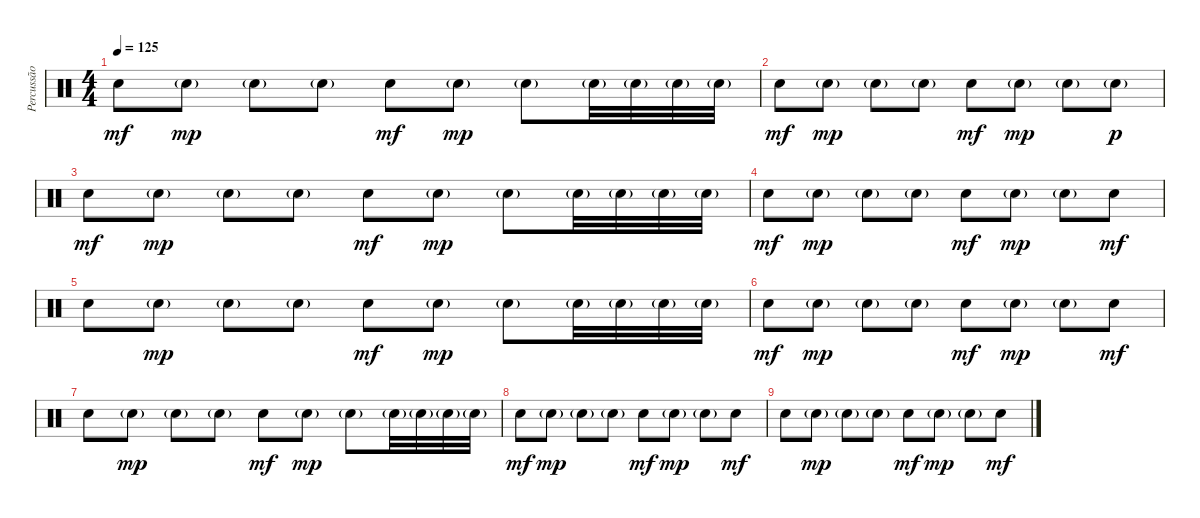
\track ("Percussão" "Percussão") {instrument percussion}
\staff {score}
\articulation defaults
\ts (4 4)
\tempo 125
\clef neutral
\ks c "Electric Snare (hit)".8{dy mf} "Electric Snare (hit)"{g}.8{dy mp} "Electric Snare (hit)"{g}.8 "Electric Snare (hit)"{g}.8 "Electric Snare (hit)".8{dy mf} "Electric Snare (hit)"{g}.8{dy mp} "Electric Snare (hit)"{g}.8 "Electric Snare (hit)"{g}.32 "Electric Snare (hit)"{g}.32 "Electric Snare (hit)"{g}.32 "Electric Snare (hit)"{g}.32
|
"Electric Snare (hit)".8{dy mf} "Electric Snare (hit)"{g}.8{dy mp} "Electric Snare (hit)"{g}.8 "Electric Snare (hit)"{g}.8 "Electric Snare (hit)".8{dy mf} "Electric Snare (hit)"{g}.8{dy mp} "Electric Snare (hit)"{g}.8 "Electric Snare (hit)"{g}.8{dy p} |
"Electric Snare (hit)".8{dy mf} "Electric Snare (hit)"{g}.8{dy mp} "Electric Snare (hit)"{g}.8 "Electric Snare (hit)"{g}.8 "Electric Snare (hit)".8{dy mf} "Electric Snare (hit)"{g}.8{dy mp} "Electric Snare (hit)"{g}.8 "Electric Snare (hit)"{g}.32 "Electric Snare (hit)"{g}.32 "Electric Snare (hit)"{g}.32 "Electric Snare (hit)"{g}.32 |
"Electric Snare (hit)".8{dy mf} "Electric Snare (hit)"{g}.8{dy mp} "Electric Snare (hit)"{g}.8 "Electric Snare (hit)"{g}.8 "Electric Snare (hit)".8{dy mf} "Electric Snare (hit)"{g}.8{dy mp} "Electric Snare (hit)"{g}.8 "Electric Snare (hit)".8{dy mf} |
"Electric Snare (hit)".8 "Electric Snare (hit)"{g}.8{dy mp} "Electric Snare (hit)"{g}.8 "Electric Snare (hit)"{g}.8 "Electric Snare (hit)".8{dy mf} "Electric Snare (hit)"{g}.8{dy mp} "Electric Snare (hit)"{g}.8 "Electric Snare (hit)"{g}.32 "Electric Snare (hit)"{g}.32 "Electric Snare (hit)"{g}.32 "Electric Snare (hit)"{g}.32 |
"Electric Snare (hit)".8{dy mf} "Electric Snare (hit)"{g}.8{dy mp} "Electric Snare (hit)"{g}.8 "Electric Snare (hit)"{g}.8 "Electric Snare (hit)".8{dy mf} "Electric Snare (hit)"{g}.8{dy mp} "Electric Snare (hit)"{g}.8 "Electric Snare (hit)".8{dy mf} |
"Electric Snare (hit)".8 "Electric Snare (hit)"{g}.8{dy mp} "Electric Snare (hit)"{g}.8 "Electric Snare (hit)"{g}.8 "Electric Snare (hit)".8{dy mf} "Electric Snare (hit)"{g}.8{dy mp} "Electric Snare (hit)"{g}.8 "Electric Snare (hit)"{g}.32 "Electric Snare (hit)"{g}.32 "Electric Snare (hit)"{g}.32 "Electric Snare (hit)"{g}.32 |
"Electric Snare (hit)".8{dy mf} "Electric Snare (hit)"{g}.8{dy mp} "Electric Snare (hit)"{g}.8 "Electric Snare (hit)"{g}.8 "Electric Snare (hit)".8{dy mf} "Electric Snare (hit)"{g}.8{dy mp} "Electric Snare (hit)"{g}.8 "Electric Snare (hit)".8{dy mf} |
"Electric Snare (hit)".8 "Electric Snare (hit)"{g}.8{dy mp} "Electric Snare (hit)"{g}.8 "Electric Snare (hit)"{g}.8 "Electric Snare (hit)".8{dy mf} "Electric Snare (hit)"{g}.8{dy mp} "Electric Snare (hit)"{g}.8 "Electric Snare (hit)".8{dy mf}
